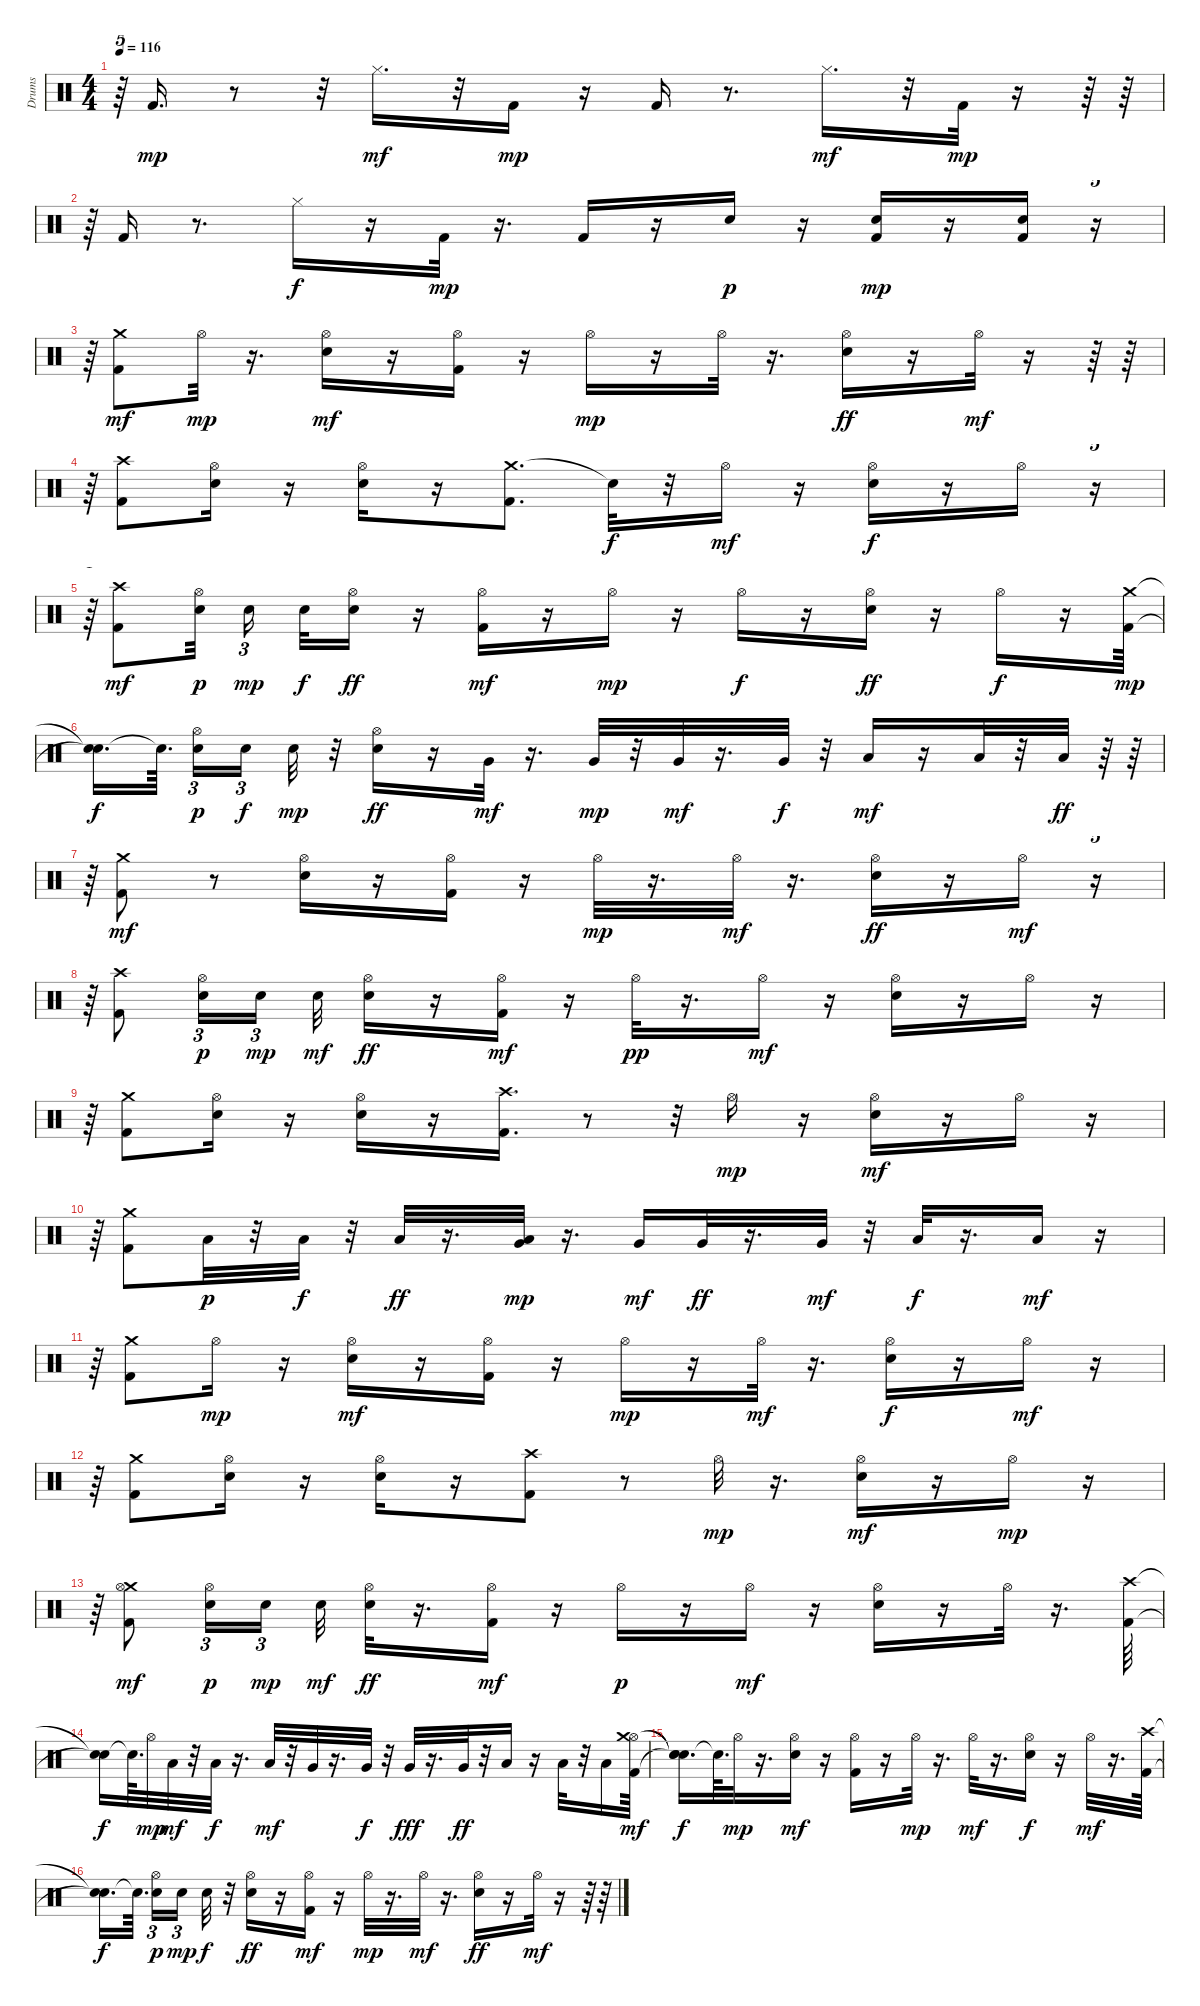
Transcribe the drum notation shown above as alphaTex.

\track ("Drums" "Drums") {instrument percussion}
\staff {score}
\articulation defaults
\ts (4 4)
\tempo 116
\clef neutral
\ks c
r.64{tu (5 4) dy f} "Kick (hit) 2".16{d dy mp} r.8 r.32 "Hi-Hat (closed)".16{d dy mf} r.32 "Kick (hit) 2".16{dy mp} r.16 "Kick (hit) 2".16 r.8{d} "Hi-Hat (closed)".16{d dy mf} r.32 "Kick (hit) 2".32{dy mp} r.16 r.64 r.64 |
r.64{tu (5 4)} "Kick (hit) 2".16 r.8{d} "Hi-Hat (closed)".16{dy f} r.16 "Kick (hit) 2".32{dy mp} r.16{d} "Kick (hit) 2".16 r.16 "Electric Snare (hit)".16{dy p} r.16 ("Kick (hit) 2" "Electric Snare (hit)").16{dy mp} r.16 ("Electric Snare (hit)" "Kick (hit) 2").16 r.16{tu (5 4)} |
r.64{tu (5 4)} ("Crash medium (hit)" "Kick (hit) 2").8{dy mf} "Hi-Hat (open)".32{dy mp} r.16{d} ("Hi-Hat (open)" "Electric Snare (hit)").16{dy mf} r.16 ("Hi-Hat (open)" "Kick (hit) 2").16 r.16 "Hi-Hat (open)".16{dy mp} r.16 "Hi-Hat (open)".32 r.16{d} ("Hi-Hat (open)" "Electric Snare (hit)").16{dy ff} r.16 "Hi-Hat (open)".32{dy mf} r.16 r.64 r.64 |
r.64{tu (5 4)} ("Crash high (hit)" "Kick (hit) 2").8 ("Hi-Hat (open)" "Electric Snare (hit)").16 r.16 ("Hi-Hat (open)" "Electric Snare (hit)").16 r.16 ("Crash medium (hit)" "Kick (hit) 2").8{d} "Snare (hit)"{t}.32{dy f} r.32 "Hi-Hat (open)".16{dy mf} r.16 ("Hi-Hat (open)" "Electric Snare (hit)").16{dy f} r.16 "Hi-Hat (open)".16 r.16{tu (5 4)} |
r.64{tu (5 4)} ("Crash high (hit)" "Kick (hit) 2").8{dy mf} ("Electric Snare (hit)" "Hi-Hat (open)").32{dy p beam splitsecondary} "Electric Snare (hit)".16{tu (3 2) dy mp beam splitsecondary} "Electric Snare (hit)".32{dy f} ("Hi-Hat (open)" "Electric Snare (hit)").16{dy ff} r.16 ("Hi-Hat (open)" "Kick (hit) 2").16{dy mf} r.16 "Hi-Hat (open)".16{dy mp} r.16 "Hi-Hat (open)".16{dy f} r.16 ("Hi-Hat (open)" "Electric Snare (hit)").16{dy ff} r.16 "Hi-Hat (open)".16{dy f} r.16 ("Crash medium (hit)" "Kick (hit) 2").64{dy mp} |
("Snare (hit)"{t} "Snare (hit)"{t}).16{d dy f} "Snare (hit)"{t}.64{d beam splitsecondary} ("Hi-Hat (open)" "Electric Snare (hit)").16{tu (3 2) dy p} "Electric Snare (hit)".16{tu (3 2) dy f beam splitsecondary} "Electric Snare (hit)".32{dy mp} r.32 ("Hi-Hat (open)" "Electric Snare (hit)").16{dy ff} r.16 "Very Low Tom (hit)".32{dy mf} r.16{d} "Very Low Tom (hit)".32{dy mp} r.32 "Very Low Tom (hit)".32{dy mf} r.16{d} "Very Low Tom (hit)".32{dy f} r.32 "Low Floor Tom (hit)".16{dy mf} r.16 "Low Floor Tom (hit)".32 r.32 "Low Floor Tom (hit)".32{dy ff} r.64 r.64 |
r.64{tu (5 4)} ("Crash medium (hit)" "Kick (hit) 2").8{dy mf} r.8 ("Hi-Hat (open)" "Electric Snare (hit)").16 r.16 ("Kick (hit) 2" "Hi-Hat (open)").16 r.16 "Hi-Hat (open)".32{dy mp} r.16{d} "Hi-Hat (open)".32{dy mf} r.16{d} ("Electric Snare (hit)" "Hi-Hat (open)").16{dy ff} r.16 "Hi-Hat (open)".16{dy mf} r.16{tu (5 4)} |
r.64{tu (5 4)} ("Crash high (hit)" "Kick (hit) 2").8 ("Hi-Hat (open)" "Electric Snare (hit)").16{tu (3 2) dy p} "Electric Snare (hit)".16{tu (3 2) dy mp beam splitsecondary} "Electric Snare (hit)".32{dy mf} ("Hi-Hat (open)" "Electric Snare (hit)").16{dy ff} r.16 ("Hi-Hat (open)" "Kick (hit) 2").16{dy mf} r.16 "Hi-Hat (open)".32{dy pp} r.16{d} "Hi-Hat (open)".16{dy mf} r.16 ("Hi-Hat (open)" "Electric Snare (hit)").16 r.16 "Hi-Hat (open)".16 r.16 |
r.64 ("Crash medium (hit)" "Kick (hit) 2").8 ("Hi-Hat (open)" "Electric Snare (hit)").16 r.16 ("Hi-Hat (open)" "Electric Snare (hit)").16 r.16 ("Crash high (hit)" "Kick (hit) 2").16{d} r.8 r.32 "Hi-Hat (open)".16{dy mp} r.16 ("Hi-Hat (open)" "Electric Snare (hit)").16{dy mf} r.16 "Hi-Hat (open)".16 r.16 |
r.64 ("Crash medium (hit)" "Kick (hit) 2").8 "Low Tom (hit)".32{dy p} r.32 "Low Tom (hit)".32{dy f} r.32 "Low Tom (hit)".32{dy ff} r.16{d} ("Low Tom (hit)" "Very Low Tom (hit)").32{dy mp} r.16{d} "Very Low Tom (hit)".16{dy mf} "Very Low Tom (hit)".32{dy ff} r.16{d} "Very Low Tom (hit)".32{dy mf} r.32 "Low Floor Tom (hit)".32{dy f} r.16{d} "Low Floor Tom (hit)".16{dy mf} r.16 |
r.64 ("Crash medium (hit)" "Kick (hit) 2").8 "Hi-Hat (open)".16{dy mp} r.16 ("Hi-Hat (open)" "Electric Snare (hit)").16{dy mf} r.16 ("Hi-Hat (open)" "Kick (hit) 2").16 r.16 "Hi-Hat (open)".16{dy mp} r.16 "Hi-Hat (open)".32{dy mf} r.16{d} ("Electric Snare (hit)" "Hi-Hat (open)").16{dy f} r.16 "Hi-Hat (open)".16{dy mf} r.16 |
r.64 ("Crash medium (hit)" "Kick (hit) 2").8 ("Hi-Hat (open)" "Electric Snare (hit)").16 r.16 ("Hi-Hat (open)" "Electric Snare (hit)").16 r.16 ("Crash high (hit)" "Kick (hit) 2").8 r.8 "Hi-Hat (open)".32{dy mp} r.16{d} ("Hi-Hat (open)" "Electric Snare (hit)").16{dy mf} r.16 "Hi-Hat (open)".16{dy mp} r.16 |
r.64 ("Crash medium (hit)" "Hi-Hat (open)" "Kick (hit) 2").8{dy mf} ("Hi-Hat (open)" "Electric Snare (hit)").16{tu (3 2) dy p} "Electric Snare (hit)".16{tu (3 2) dy mp beam splitsecondary} "Electric Snare (hit)".32{dy mf} ("Hi-Hat (open)" "Electric Snare (hit)").32{dy ff} r.16{d} ("Hi-Hat (open)" "Kick (hit) 2").16{dy mf} r.16 "Hi-Hat (open)".16{dy p} r.16 "Hi-Hat (open)".16{dy mf} r.16 ("Hi-Hat (open)" "Electric Snare (hit)").16 r.16 "Hi-Hat (open)".32 r.16{d} ("Crash high (hit)" "Kick (hit) 2").64 |
("Snare (hit)"{t} "Snare (hit)"{t}).16{dy f} "Snare (hit)"{t}.64{d} "Hi-Hat (open)".32{dy mp} "Low Tom (hit)".32{dy mf} r.32 "Low Tom (hit)".32{dy f} r.16{d} "Low Tom (hit)".32{dy mf} r.32 "Very Low Tom (hit)".32 r.16{d} "Very Low Tom (hit)".32{dy f} r.32 "Very Low Tom (hit)".32{dy fff} r.16{d} "Very Low Tom (hit)".32{dy ff} r.32 "Low Floor Tom (hit)".16 r.16 "Low Floor Tom (hit)".32 r.32 "Low Floor Tom (hit)".16 ("Hi-Hat (open)" "Crash medium (hit)" "Kick (hit) 2").64{dy mf} |
("Snare (hit)"{t} "Snare (hit)"{t} "Snare (hit)"{t}).16{d dy f} "Snare (hit)"{t}.64{d} "Hi-Hat (open)".32{dy mp} r.16{d} ("Hi-Hat (open)" "Electric Snare (hit)").16{dy mf} r.16 ("Hi-Hat (open)" "Kick (hit) 2").16 r.16 "Hi-Hat (open)".32{dy mp} r.16{d} "Hi-Hat (open)".32{dy mf} r.16{d} ("Electric Snare (hit)" "Hi-Hat (open)").16{dy f} r.16 "Hi-Hat (open)".32{dy mf} r.16{d} ("Crash high (hit)" "Kick (hit) 2").64 |
("Snare (hit)"{t} "Snare (hit)"{t}).16{d dy f} "Snare (hit)"{t}.64{d beam splitsecondary} ("Hi-Hat (open)" "Electric Snare (hit)").16{tu (3 2) dy p} "Electric Snare (hit)".16{tu (3 2) dy mp beam splitsecondary} "Electric Snare (hit)".32{dy f} r.32 ("Hi-Hat (open)" "Electric Snare (hit)").16{dy ff} r.16 ("Hi-Hat (open)" "Kick (hit) 2").16{dy mf} r.16 "Hi-Hat (open)".32{dy mp} r.16{d} "Hi-Hat (open)".32{dy mf} r.16{d} ("Electric Snare (hit)" "Hi-Hat (open)").16{dy ff} r.16 "Hi-Hat (open)".32{dy mf} r.16 r.64 r.64
